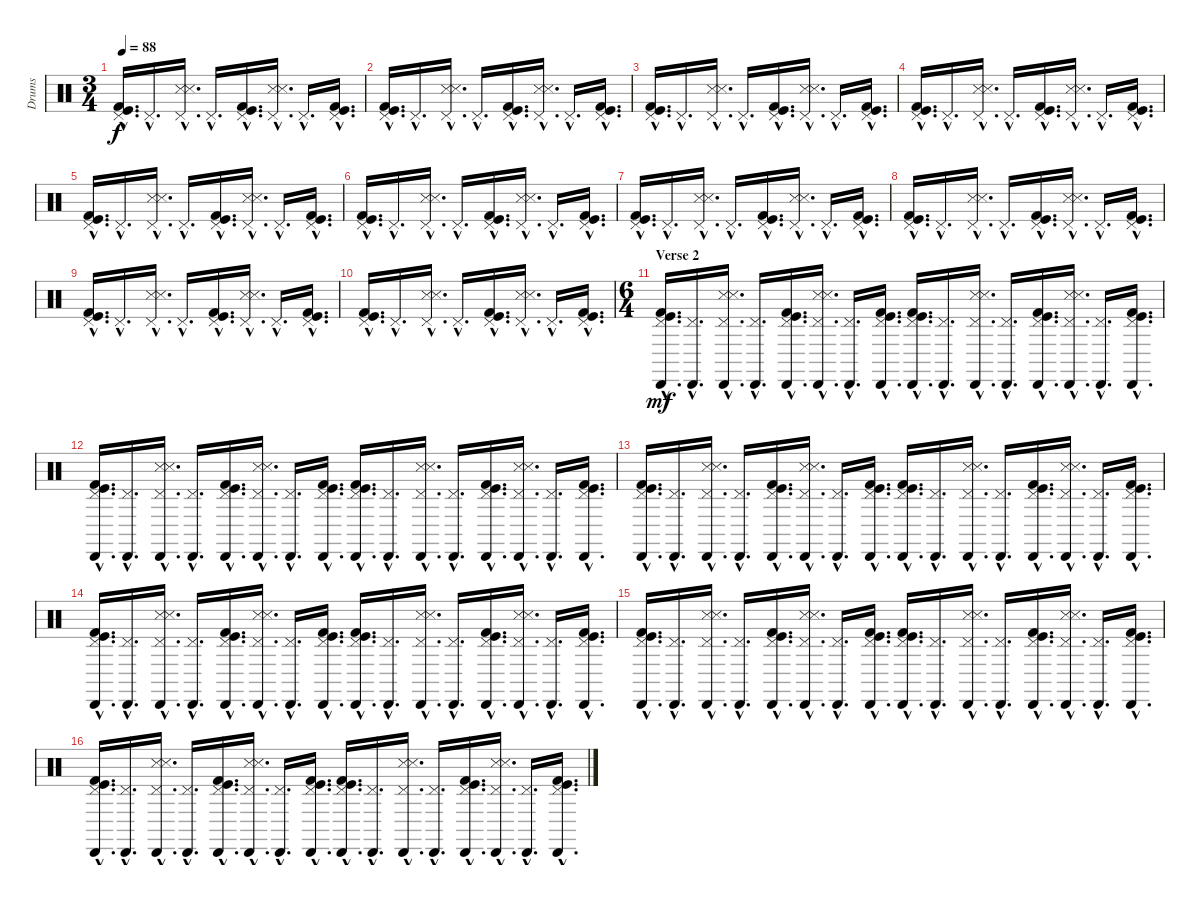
\track ("Drums" "Drums") {instrument percussion}
\staff {score}
\articulation defaults
\ts (3 4)
\tempo 88
\clef neutral
\ks c
("Pedal Hi-Hat (hit)"{hac} "Kick (hit)"{hac} "Kick (hit) 2"{hac}).16{d dy f} "Pedal Hi-Hat (hit)"{hac}.16{d} ("Pedal Hi-Hat (hit)"{hac} "Snare (side stick) 3"{hac} "Snare (side stick) 3"{hac}).16{d} "Pedal Hi-Hat (hit)"{hac}.16{d} ("Pedal Hi-Hat (hit)"{hac} "Kick (hit)"{hac} "Kick (hit) 2"{hac}).16{d} ("Pedal Hi-Hat (hit)"{hac} "Snare (side stick) 3"{hac} "Snare (side stick) 3"{hac}).16{d} "Pedal Hi-Hat (hit)"{hac}.16{d} ("Pedal Hi-Hat (hit)"{hac} "Kick (hit)"{hac} "Kick (hit) 2"{hac}).16{d} |
("Pedal Hi-Hat (hit)"{hac} "Kick (hit)"{hac} "Kick (hit) 2"{hac}).16{d} "Pedal Hi-Hat (hit)"{hac}.16{d} ("Pedal Hi-Hat (hit)"{hac} "Snare (side stick) 3"{hac} "Snare (side stick) 3"{hac}).16{d} "Pedal Hi-Hat (hit)"{hac}.16{d} ("Pedal Hi-Hat (hit)"{hac} "Kick (hit)"{hac} "Kick (hit) 2"{hac}).16{d} ("Pedal Hi-Hat (hit)"{hac} "Snare (side stick) 3"{hac} "Snare (side stick) 3"{hac}).16{d} "Pedal Hi-Hat (hit)"{hac}.16{d} ("Pedal Hi-Hat (hit)"{hac} "Kick (hit)"{hac} "Kick (hit) 2"{hac}).16{d} |
("Pedal Hi-Hat (hit)"{hac} "Kick (hit)"{hac} "Kick (hit) 2"{hac}).16{d} "Pedal Hi-Hat (hit)"{hac}.16{d} ("Pedal Hi-Hat (hit)"{hac} "Snare (side stick) 3"{hac} "Snare (side stick) 3"{hac}).16{d} "Pedal Hi-Hat (hit)"{hac}.16{d} ("Pedal Hi-Hat (hit)"{hac} "Kick (hit)"{hac} "Kick (hit) 2"{hac}).16{d} ("Pedal Hi-Hat (hit)"{hac} "Snare (side stick) 3"{hac} "Snare (side stick) 3"{hac}).16{d} "Pedal Hi-Hat (hit)"{hac}.16{d} ("Pedal Hi-Hat (hit)"{hac} "Kick (hit)"{hac} "Kick (hit) 2"{hac}).16{d} |
("Pedal Hi-Hat (hit)"{hac} "Kick (hit)"{hac} "Kick (hit) 2"{hac}).16{d} "Pedal Hi-Hat (hit)"{hac}.16{d} ("Pedal Hi-Hat (hit)"{hac} "Snare (side stick) 3"{hac} "Snare (side stick) 3"{hac}).16{d} "Pedal Hi-Hat (hit)"{hac}.16{d} ("Pedal Hi-Hat (hit)"{hac} "Kick (hit)"{hac} "Kick (hit) 2"{hac}).16{d} ("Pedal Hi-Hat (hit)"{hac} "Snare (side stick) 3"{hac} "Snare (side stick) 3"{hac}).16{d} "Pedal Hi-Hat (hit)"{hac}.16{d} ("Pedal Hi-Hat (hit)"{hac} "Kick (hit)"{hac} "Kick (hit) 2"{hac}).16{d} |
("Pedal Hi-Hat (hit)"{hac} "Kick (hit)"{hac} "Kick (hit) 2"{hac}).16{d} "Pedal Hi-Hat (hit)"{hac}.16{d} ("Pedal Hi-Hat (hit)"{hac} "Snare (side stick) 3"{hac} "Snare (side stick) 3"{hac}).16{d} "Pedal Hi-Hat (hit)"{hac}.16{d} ("Pedal Hi-Hat (hit)"{hac} "Kick (hit)"{hac} "Kick (hit) 2"{hac}).16{d} ("Pedal Hi-Hat (hit)"{hac} "Snare (side stick) 3"{hac} "Snare (side stick) 3"{hac}).16{d} "Pedal Hi-Hat (hit)"{hac}.16{d} ("Pedal Hi-Hat (hit)"{hac} "Kick (hit)"{hac} "Kick (hit) 2"{hac}).16{d} |
("Pedal Hi-Hat (hit)"{hac} "Kick (hit)"{hac} "Kick (hit) 2"{hac}).16{d} "Pedal Hi-Hat (hit)"{hac}.16{d} ("Pedal Hi-Hat (hit)"{hac} "Snare (side stick) 3"{hac} "Snare (side stick) 3"{hac}).16{d} "Pedal Hi-Hat (hit)"{hac}.16{d} ("Pedal Hi-Hat (hit)"{hac} "Kick (hit)"{hac} "Kick (hit) 2"{hac}).16{d} ("Pedal Hi-Hat (hit)"{hac} "Snare (side stick) 3"{hac} "Snare (side stick) 3"{hac}).16{d} "Pedal Hi-Hat (hit)"{hac}.16{d} ("Pedal Hi-Hat (hit)"{hac} "Kick (hit)"{hac} "Kick (hit) 2"{hac}).16{d} |
("Pedal Hi-Hat (hit)"{hac} "Kick (hit)"{hac} "Kick (hit) 2"{hac}).16{d} "Pedal Hi-Hat (hit)"{hac}.16{d} ("Pedal Hi-Hat (hit)"{hac} "Snare (side stick) 3"{hac} "Snare (side stick) 3"{hac}).16{d} "Pedal Hi-Hat (hit)"{hac}.16{d} ("Pedal Hi-Hat (hit)"{hac} "Kick (hit)"{hac} "Kick (hit) 2"{hac}).16{d} ("Pedal Hi-Hat (hit)"{hac} "Snare (side stick) 3"{hac} "Snare (side stick) 3"{hac}).16{d} "Pedal Hi-Hat (hit)"{hac}.16{d} ("Pedal Hi-Hat (hit)"{hac} "Kick (hit)"{hac} "Kick (hit) 2"{hac}).16{d} |
("Pedal Hi-Hat (hit)"{hac} "Kick (hit)"{hac} "Kick (hit) 2"{hac}).16{d} "Pedal Hi-Hat (hit)"{hac}.16{d} ("Pedal Hi-Hat (hit)"{hac} "Snare (side stick) 3"{hac} "Snare (side stick) 3"{hac}).16{d} "Pedal Hi-Hat (hit)"{hac}.16{d} ("Pedal Hi-Hat (hit)"{hac} "Kick (hit)"{hac} "Kick (hit) 2"{hac}).16{d} ("Pedal Hi-Hat (hit)"{hac} "Snare (side stick) 3"{hac} "Snare (side stick) 3"{hac}).16{d} "Pedal Hi-Hat (hit)"{hac}.16{d} ("Pedal Hi-Hat (hit)"{hac} "Kick (hit)"{hac} "Kick (hit) 2"{hac}).16{d} |
("Pedal Hi-Hat (hit)"{hac} "Kick (hit)"{hac} "Kick (hit) 2"{hac}).16{d} "Pedal Hi-Hat (hit)"{hac}.16{d} ("Pedal Hi-Hat (hit)"{hac} "Snare (side stick) 3"{hac} "Snare (side stick) 3"{hac}).16{d} "Pedal Hi-Hat (hit)"{hac}.16{d} ("Pedal Hi-Hat (hit)"{hac} "Kick (hit)"{hac} "Kick (hit) 2"{hac}).16{d} ("Pedal Hi-Hat (hit)"{hac} "Snare (side stick) 3"{hac} "Snare (side stick) 3"{hac}).16{d} "Pedal Hi-Hat (hit)"{hac}.16{d} ("Pedal Hi-Hat (hit)"{hac} "Kick (hit)"{hac} "Kick (hit) 2"{hac}).16{d} |
("Pedal Hi-Hat (hit)"{hac} "Kick (hit)"{hac} "Kick (hit) 2"{hac}).16{d} "Pedal Hi-Hat (hit)"{hac}.16{d} ("Pedal Hi-Hat (hit)"{hac} "Snare (side stick) 3"{hac} "Snare (side stick) 3"{hac}).16{d} "Pedal Hi-Hat (hit)"{hac}.16{d} ("Pedal Hi-Hat (hit)"{hac} "Kick (hit)"{hac} "Kick (hit) 2"{hac}).16{d} ("Pedal Hi-Hat (hit)"{hac} "Snare (side stick) 3"{hac} "Snare (side stick) 3"{hac}).16{d} "Pedal Hi-Hat (hit)"{hac}.16{d} ("Pedal Hi-Hat (hit)"{hac} "Kick (hit)"{hac} "Kick (hit) 2"{hac}).16{d} |
\ts (6 4)
\section ("" "Verse 2")
("Pedal Hi-Hat (hit)"{hac} "Cabasa (hit)"{hac} "Kick (hit)"{hac} "Kick (hit) 2"{hac}).16{d dy mf} ("Pedal Hi-Hat (hit)"{hac} "Cabasa (hit)"{hac}).16{d} ("Pedal Hi-Hat (hit)"{hac} "Cabasa (hit)"{hac} "Snare (side stick) 3"{hac} "Snare (side stick) 3"{hac}).16{d} ("Pedal Hi-Hat (hit)"{hac} "Cabasa (hit)"{hac}).16{d} ("Pedal Hi-Hat (hit)"{hac} "Cabasa (hit)"{hac} "Kick (hit)"{hac} "Kick (hit) 2"{hac}).16{d} ("Pedal Hi-Hat (hit)"{hac} "Cabasa (hit)"{hac} "Snare (side stick) 3"{hac} "Snare (side stick) 3"{hac}).16{d} ("Pedal Hi-Hat (hit)"{hac} "Cabasa (hit)"{hac}).16{d} ("Pedal Hi-Hat (hit)"{hac} "Cabasa (hit)"{hac} "Kick (hit)"{hac} "Kick (hit) 2"{hac}).16{d} ("Pedal Hi-Hat (hit)"{hac} "Cabasa (hit)"{hac} "Kick (hit)"{hac} "Kick (hit) 2"{hac}).16{d} ("Pedal Hi-Hat (hit)"{hac} "Cabasa (hit)"{hac}).16{d} ("Pedal Hi-Hat (hit)"{hac} "Cabasa (hit)"{hac} "Snare (side stick) 3"{hac} "Snare (side stick) 3"{hac}).16{d} ("Pedal Hi-Hat (hit)"{hac} "Cabasa (hit)"{hac}).16{d} ("Pedal Hi-Hat (hit)"{hac} "Cabasa (hit)"{hac} "Kick (hit)"{hac} "Kick (hit) 2"{hac}).16{d} ("Pedal Hi-Hat (hit)"{hac} "Cabasa (hit)"{hac} "Snare (side stick) 3"{hac} "Snare (side stick) 3"{hac}).16{d} ("Pedal Hi-Hat (hit)"{hac} "Cabasa (hit)"{hac}).16{d} ("Pedal Hi-Hat (hit)"{hac} "Cabasa (hit)"{hac} "Kick (hit)"{hac} "Kick (hit) 2"{hac}).16{d} |
("Pedal Hi-Hat (hit)"{hac} "Cabasa (hit)"{hac} "Kick (hit)"{hac} "Kick (hit) 2"{hac}).16{d} ("Pedal Hi-Hat (hit)"{hac} "Cabasa (hit)"{hac}).16{d} ("Pedal Hi-Hat (hit)"{hac} "Cabasa (hit)"{hac} "Snare (side stick) 3"{hac} "Snare (side stick) 3"{hac}).16{d} ("Pedal Hi-Hat (hit)"{hac} "Cabasa (hit)"{hac}).16{d} ("Pedal Hi-Hat (hit)"{hac} "Cabasa (hit)"{hac} "Kick (hit)"{hac} "Kick (hit) 2"{hac}).16{d} ("Pedal Hi-Hat (hit)"{hac} "Cabasa (hit)"{hac} "Snare (side stick) 3"{hac} "Snare (side stick) 3"{hac}).16{d} ("Pedal Hi-Hat (hit)"{hac} "Cabasa (hit)"{hac}).16{d} ("Pedal Hi-Hat (hit)"{hac} "Cabasa (hit)"{hac} "Kick (hit)"{hac} "Kick (hit) 2"{hac}).16{d} ("Pedal Hi-Hat (hit)"{hac} "Cabasa (hit)"{hac} "Kick (hit)"{hac} "Kick (hit) 2"{hac}).16{d} ("Pedal Hi-Hat (hit)"{hac} "Cabasa (hit)"{hac}).16{d} ("Pedal Hi-Hat (hit)"{hac} "Cabasa (hit)"{hac} "Snare (side stick) 3"{hac} "Snare (side stick) 3"{hac}).16{d} ("Pedal Hi-Hat (hit)"{hac} "Cabasa (hit)"{hac}).16{d} ("Pedal Hi-Hat (hit)"{hac} "Cabasa (hit)"{hac} "Kick (hit)"{hac} "Kick (hit) 2"{hac}).16{d} ("Pedal Hi-Hat (hit)"{hac} "Cabasa (hit)"{hac} "Snare (side stick) 3"{hac} "Snare (side stick) 3"{hac}).16{d} ("Pedal Hi-Hat (hit)"{hac} "Cabasa (hit)"{hac}).16{d} ("Pedal Hi-Hat (hit)"{hac} "Cabasa (hit)"{hac} "Kick (hit)"{hac} "Kick (hit) 2"{hac}).16{d} |
("Pedal Hi-Hat (hit)"{hac} "Cabasa (hit)"{hac} "Kick (hit)"{hac} "Kick (hit) 2"{hac}).16{d} ("Pedal Hi-Hat (hit)"{hac} "Cabasa (hit)"{hac}).16{d} ("Pedal Hi-Hat (hit)"{hac} "Cabasa (hit)"{hac} "Snare (side stick) 3"{hac} "Snare (side stick) 3"{hac}).16{d} ("Pedal Hi-Hat (hit)"{hac} "Cabasa (hit)"{hac}).16{d} ("Pedal Hi-Hat (hit)"{hac} "Cabasa (hit)"{hac} "Kick (hit)"{hac} "Kick (hit) 2"{hac}).16{d} ("Pedal Hi-Hat (hit)"{hac} "Cabasa (hit)"{hac} "Snare (side stick) 3"{hac} "Snare (side stick) 3"{hac}).16{d} ("Pedal Hi-Hat (hit)"{hac} "Cabasa (hit)"{hac}).16{d} ("Pedal Hi-Hat (hit)"{hac} "Cabasa (hit)"{hac} "Kick (hit)"{hac} "Kick (hit) 2"{hac}).16{d} ("Pedal Hi-Hat (hit)"{hac} "Cabasa (hit)"{hac} "Kick (hit)"{hac} "Kick (hit) 2"{hac}).16{d} ("Pedal Hi-Hat (hit)"{hac} "Cabasa (hit)"{hac}).16{d} ("Pedal Hi-Hat (hit)"{hac} "Cabasa (hit)"{hac} "Snare (side stick) 3"{hac} "Snare (side stick) 3"{hac}).16{d} ("Pedal Hi-Hat (hit)"{hac} "Cabasa (hit)"{hac}).16{d} ("Pedal Hi-Hat (hit)"{hac} "Cabasa (hit)"{hac} "Kick (hit)"{hac} "Kick (hit) 2"{hac}).16{d} ("Pedal Hi-Hat (hit)"{hac} "Cabasa (hit)"{hac} "Snare (side stick) 3"{hac} "Snare (side stick) 3"{hac}).16{d} ("Pedal Hi-Hat (hit)"{hac} "Cabasa (hit)"{hac}).16{d} ("Pedal Hi-Hat (hit)"{hac} "Cabasa (hit)"{hac} "Kick (hit)"{hac} "Kick (hit) 2"{hac}).16{d} |
("Pedal Hi-Hat (hit)"{hac} "Cabasa (hit)"{hac} "Kick (hit)"{hac} "Kick (hit) 2"{hac}).16{d} ("Pedal Hi-Hat (hit)"{hac} "Cabasa (hit)"{hac}).16{d} ("Pedal Hi-Hat (hit)"{hac} "Cabasa (hit)"{hac} "Snare (side stick) 3"{hac} "Snare (side stick) 3"{hac}).16{d} ("Pedal Hi-Hat (hit)"{hac} "Cabasa (hit)"{hac}).16{d} ("Pedal Hi-Hat (hit)"{hac} "Cabasa (hit)"{hac} "Kick (hit)"{hac} "Kick (hit) 2"{hac}).16{d} ("Pedal Hi-Hat (hit)"{hac} "Cabasa (hit)"{hac} "Snare (side stick) 3"{hac} "Snare (side stick) 3"{hac}).16{d} ("Pedal Hi-Hat (hit)"{hac} "Cabasa (hit)"{hac}).16{d} ("Pedal Hi-Hat (hit)"{hac} "Cabasa (hit)"{hac} "Kick (hit)"{hac} "Kick (hit) 2"{hac}).16{d} ("Pedal Hi-Hat (hit)"{hac} "Cabasa (hit)"{hac} "Kick (hit)"{hac} "Kick (hit) 2"{hac}).16{d} ("Pedal Hi-Hat (hit)"{hac} "Cabasa (hit)"{hac}).16{d} ("Pedal Hi-Hat (hit)"{hac} "Cabasa (hit)"{hac} "Snare (side stick) 3"{hac} "Snare (side stick) 3"{hac}).16{d} ("Pedal Hi-Hat (hit)"{hac} "Cabasa (hit)"{hac}).16{d} ("Pedal Hi-Hat (hit)"{hac} "Cabasa (hit)"{hac} "Kick (hit)"{hac} "Kick (hit) 2"{hac}).16{d} ("Pedal Hi-Hat (hit)"{hac} "Cabasa (hit)"{hac} "Snare (side stick) 3"{hac} "Snare (side stick) 3"{hac}).16{d} ("Pedal Hi-Hat (hit)"{hac} "Cabasa (hit)"{hac}).16{d} ("Pedal Hi-Hat (hit)"{hac} "Cabasa (hit)"{hac} "Kick (hit)"{hac} "Kick (hit) 2"{hac}).16{d} |
("Pedal Hi-Hat (hit)"{hac} "Cabasa (hit)"{hac} "Kick (hit)"{hac} "Kick (hit) 2"{hac}).16{d} ("Pedal Hi-Hat (hit)"{hac} "Cabasa (hit)"{hac}).16{d} ("Pedal Hi-Hat (hit)"{hac} "Cabasa (hit)"{hac} "Snare (side stick) 3"{hac} "Snare (side stick) 3"{hac}).16{d} ("Pedal Hi-Hat (hit)"{hac} "Cabasa (hit)"{hac}).16{d} ("Pedal Hi-Hat (hit)"{hac} "Cabasa (hit)"{hac} "Kick (hit)"{hac} "Kick (hit) 2"{hac}).16{d} ("Pedal Hi-Hat (hit)"{hac} "Cabasa (hit)"{hac} "Snare (side stick) 3"{hac} "Snare (side stick) 3"{hac}).16{d} ("Pedal Hi-Hat (hit)"{hac} "Cabasa (hit)"{hac}).16{d} ("Pedal Hi-Hat (hit)"{hac} "Cabasa (hit)"{hac} "Kick (hit)"{hac} "Kick (hit) 2"{hac}).16{d} ("Pedal Hi-Hat (hit)"{hac} "Cabasa (hit)"{hac} "Kick (hit)"{hac} "Kick (hit) 2"{hac}).16{d} ("Pedal Hi-Hat (hit)"{hac} "Cabasa (hit)"{hac}).16{d} ("Pedal Hi-Hat (hit)"{hac} "Cabasa (hit)"{hac} "Snare (side stick) 3"{hac} "Snare (side stick) 3"{hac}).16{d} ("Pedal Hi-Hat (hit)"{hac} "Cabasa (hit)"{hac}).16{d} ("Pedal Hi-Hat (hit)"{hac} "Cabasa (hit)"{hac} "Kick (hit)"{hac} "Kick (hit) 2"{hac}).16{d} ("Pedal Hi-Hat (hit)"{hac} "Cabasa (hit)"{hac} "Snare (side stick) 3"{hac} "Snare (side stick) 3"{hac}).16{d} ("Pedal Hi-Hat (hit)"{hac} "Cabasa (hit)"{hac}).16{d} ("Pedal Hi-Hat (hit)"{hac} "Cabasa (hit)"{hac} "Kick (hit)"{hac} "Kick (hit) 2"{hac}).16{d} |
("Pedal Hi-Hat (hit)"{hac} "Cabasa (hit)"{hac} "Kick (hit)"{hac} "Kick (hit) 2"{hac}).16{d} ("Pedal Hi-Hat (hit)"{hac} "Cabasa (hit)"{hac}).16{d} ("Pedal Hi-Hat (hit)"{hac} "Cabasa (hit)"{hac} "Snare (side stick) 3"{hac} "Snare (side stick) 3"{hac}).16{d} ("Pedal Hi-Hat (hit)"{hac} "Cabasa (hit)"{hac}).16{d} ("Pedal Hi-Hat (hit)"{hac} "Cabasa (hit)"{hac} "Kick (hit)"{hac} "Kick (hit) 2"{hac}).16{d} ("Pedal Hi-Hat (hit)"{hac} "Cabasa (hit)"{hac} "Snare (side stick) 3"{hac} "Snare (side stick) 3"{hac}).16{d} ("Pedal Hi-Hat (hit)"{hac} "Cabasa (hit)"{hac}).16{d} ("Pedal Hi-Hat (hit)"{hac} "Cabasa (hit)"{hac} "Kick (hit)"{hac} "Kick (hit) 2"{hac}).16{d} ("Pedal Hi-Hat (hit)"{hac} "Cabasa (hit)"{hac} "Kick (hit)"{hac} "Kick (hit) 2"{hac}).16{d} ("Pedal Hi-Hat (hit)"{hac} "Cabasa (hit)"{hac}).16{d} ("Pedal Hi-Hat (hit)"{hac} "Cabasa (hit)"{hac} "Snare (side stick) 3"{hac} "Snare (side stick) 3"{hac}).16{d} ("Pedal Hi-Hat (hit)"{hac} "Cabasa (hit)"{hac}).16{d} ("Pedal Hi-Hat (hit)"{hac} "Cabasa (hit)"{hac} "Kick (hit)"{hac} "Kick (hit) 2"{hac}).16{d} ("Pedal Hi-Hat (hit)"{hac} "Cabasa (hit)"{hac} "Snare (side stick) 3"{hac} "Snare (side stick) 3"{hac}).16{d} ("Pedal Hi-Hat (hit)"{hac} "Cabasa (hit)"{hac}).16{d} ("Pedal Hi-Hat (hit)"{hac} "Cabasa (hit)"{hac} "Kick (hit)"{hac} "Kick (hit) 2"{hac}).16{d}
